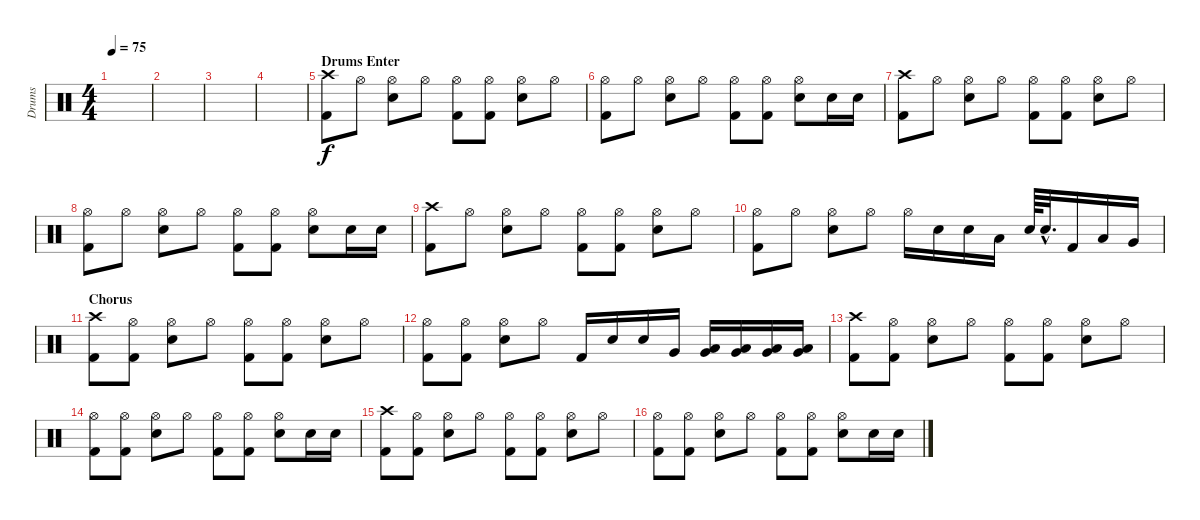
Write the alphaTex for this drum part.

\track ("Drums" "Drums") {instrument percussion}
\staff {score}
\articulation defaults
\ts (4 4)
\tempo 75
\clef neutral
\ks c
|
|
|
|
\section ("" "Drums Enter")
("Crash high (hit)" "Kick (hit) 2").8 "Hi-Hat (open)".8 ("Hi-Hat (open)" "Snare (hit) 2").8 "Hi-Hat (open)".8 ("Hi-Hat (open)" "Kick (hit) 2").8 ("Hi-Hat (open)" "Kick (hit) 2").8 ("Hi-Hat (open)" "Snare (hit) 2").8 "Hi-Hat (open)".8 |
("Hi-Hat (open)" "Kick (hit) 2").8 "Hi-Hat (open)".8 ("Hi-Hat (open)" "Snare (hit) 2").8 "Hi-Hat (open)".8 ("Hi-Hat (open)" "Kick (hit) 2").8 ("Hi-Hat (open)" "Kick (hit) 2").8 ("Hi-Hat (open)" "Snare (hit) 2").8 "Snare (hit) 2".16 "Snare (hit) 2".16 |
("Crash high (hit)" "Kick (hit) 2").8 "Hi-Hat (open)".8 ("Hi-Hat (open)" "Snare (hit) 2").8 "Hi-Hat (open)".8 ("Hi-Hat (open)" "Kick (hit) 2").8 ("Hi-Hat (open)" "Kick (hit) 2").8 ("Hi-Hat (open)" "Snare (hit) 2").8 "Hi-Hat (open)".8 |
("Hi-Hat (open)" "Kick (hit) 2").8 "Hi-Hat (open)".8 ("Hi-Hat (open)" "Snare (hit) 2").8 "Hi-Hat (open)".8 ("Hi-Hat (open)" "Kick (hit) 2").8 ("Hi-Hat (open)" "Kick (hit) 2").8 ("Hi-Hat (open)" "Snare (hit) 2").8 "Snare (hit) 2".16 "Snare (hit) 2".16 |
("Crash high (hit)" "Kick (hit) 2").8 "Hi-Hat (open)".8 ("Hi-Hat (open)" "Snare (hit) 2").8 "Hi-Hat (open)".8 ("Hi-Hat (open)" "Kick (hit) 2").8 ("Hi-Hat (open)" "Kick (hit) 2").8 ("Hi-Hat (open)" "Snare (hit) 2").8 "Hi-Hat (open)".8 |
("Hi-Hat (open)" "Kick (hit) 2").8 "Hi-Hat (open)".8 ("Hi-Hat (open)" "Snare (hit) 2").8 "Hi-Hat (open)".8 "Hi-Hat (open)".16 "Snare (hit) 2".16 "Snare (hit) 2".16 "Low Tom (hit)".16 "Snare (hit) 2".64 "Snare (hit) 2"{hac}.32{d} "Kick (hit) 2".16 "Low Tom (hit)".16 "Very Low Tom (hit)".16 |
\section ("" "Chorus")
("Crash high (hit)" "Kick (hit) 2").8 ("Hi-Hat (open)" "Kick (hit) 2").8 ("Hi-Hat (open)" "Snare (hit) 2").8 "Hi-Hat (open)".8 ("Hi-Hat (open)" "Kick (hit) 2").8 ("Hi-Hat (open)" "Kick (hit) 2").8 ("Hi-Hat (open)" "Snare (hit) 2").8 "Hi-Hat (open)".8 |
("Hi-Hat (open)" "Kick (hit) 2").8 ("Hi-Hat (open)" "Kick (hit) 2").8 ("Hi-Hat (open)" "Snare (hit) 2").8 "Hi-Hat (open)".8 "Kick (hit) 2".16 "Snare (hit) 2".16 "Snare (hit) 2".16 "Very Low Tom (hit)".16 ("Low Tom (hit)" "Very Low Tom (hit)").16 ("Low Tom (hit)" "Very Low Tom (hit)").16 ("Very Low Tom (hit)" "Low Floor Tom (hit)").16 ("Very Low Tom (hit)" "Low Floor Tom (hit)").16 |
("Crash high (hit)" "Kick (hit) 2").8 ("Hi-Hat (open)" "Kick (hit) 2").8 ("Hi-Hat (open)" "Snare (hit) 2").8 "Hi-Hat (open)".8 ("Hi-Hat (open)" "Kick (hit) 2").8 ("Hi-Hat (open)" "Kick (hit) 2").8 ("Hi-Hat (open)" "Snare (hit) 2").8 "Hi-Hat (open)".8 |
("Hi-Hat (open)" "Kick (hit) 2").8 ("Hi-Hat (open)" "Kick (hit) 2").8 ("Hi-Hat (open)" "Snare (hit) 2").8 "Hi-Hat (open)".8 ("Hi-Hat (open)" "Kick (hit) 2").8 ("Hi-Hat (open)" "Kick (hit) 2").8 ("Hi-Hat (open)" "Snare (hit) 2").8 "Snare (hit) 2".16 "Snare (hit) 2".16 |
("Crash high (hit)" "Kick (hit) 2").8 ("Hi-Hat (open)" "Kick (hit) 2").8 ("Hi-Hat (open)" "Snare (hit) 2").8 "Hi-Hat (open)".8 ("Hi-Hat (open)" "Kick (hit) 2").8 ("Hi-Hat (open)" "Kick (hit) 2").8 ("Hi-Hat (open)" "Snare (hit) 2").8 "Hi-Hat (open)".8 |
("Hi-Hat (open)" "Kick (hit) 2").8 ("Hi-Hat (open)" "Kick (hit) 2").8 ("Hi-Hat (open)" "Snare (hit) 2").8 "Hi-Hat (open)".8 ("Hi-Hat (open)" "Kick (hit) 2").8 ("Hi-Hat (open)" "Kick (hit) 2").8 ("Hi-Hat (open)" "Snare (hit) 2").8 "Snare (hit) 2".16 "Snare (hit) 2".16
